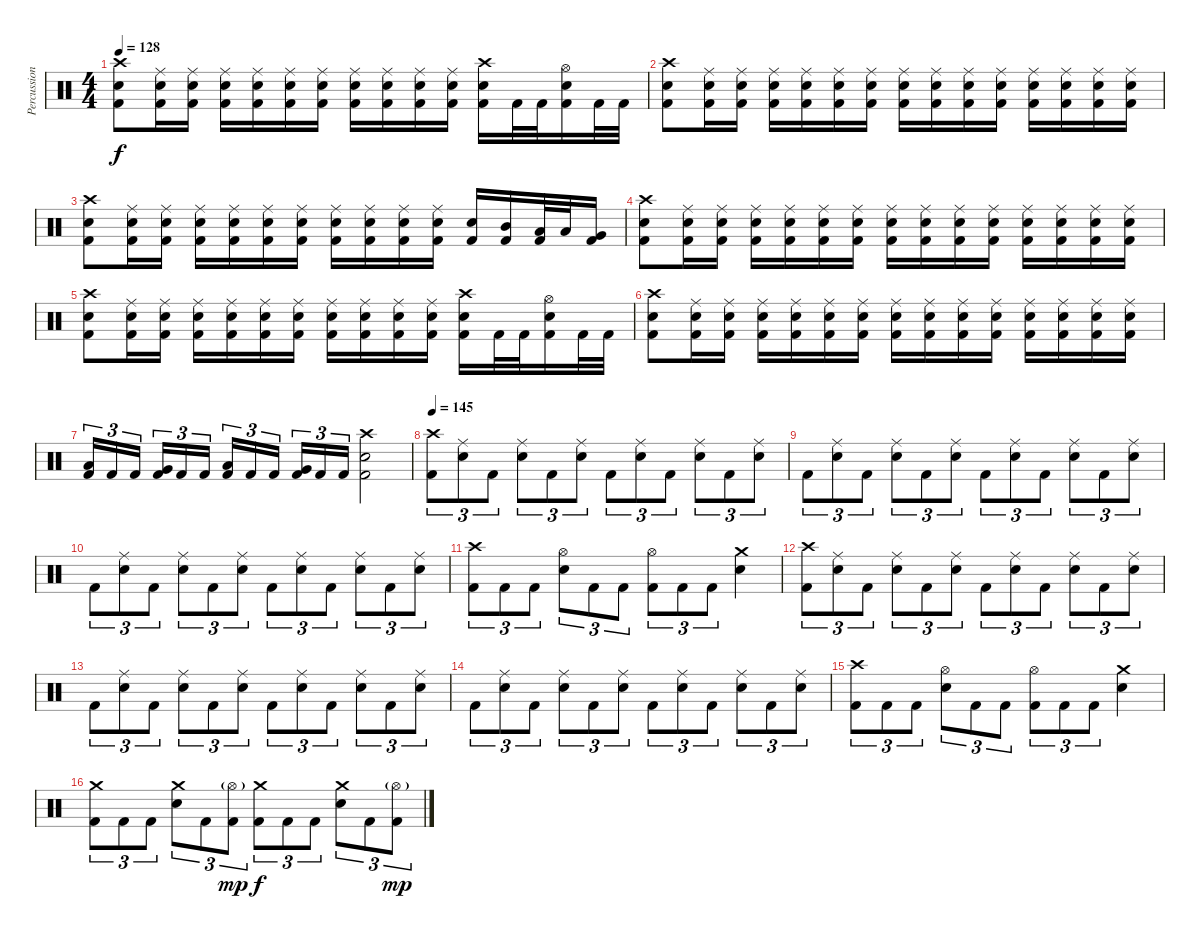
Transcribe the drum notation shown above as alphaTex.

\track ("Percussion" "Percussion") {instrument percussion}
\staff {score}
\articulation defaults
\ts (4 4)
\tempo 128
\clef neutral
\ks c
("Crash high (hit)" "Electric Snare (hit)" "Kick (hit) 2").8{dy f} ("Ride (middle)" "Electric Snare (hit)" "Kick (hit) 2").16 ("Ride (middle)" "Electric Snare (hit)" "Kick (hit) 2").16 ("Ride (middle)" "Electric Snare (hit)" "Kick (hit) 2").16 ("Ride (middle)" "Electric Snare (hit)" "Kick (hit) 2").16 ("Ride (middle)" "Electric Snare (hit)" "Kick (hit) 2").16 ("Ride (middle)" "Electric Snare (hit)" "Kick (hit) 2").16 ("Ride (middle)" "Electric Snare (hit)" "Kick (hit) 2").16 ("Ride (middle)" "Electric Snare (hit)" "Kick (hit) 2").16 ("Ride (middle)" "Electric Snare (hit)" "Kick (hit) 2").16 ("Ride (middle)" "Electric Snare (hit)" "Kick (hit) 2").16 ("Crash high (hit)" "Electric Snare (hit)" "Kick (hit) 2").16 "Kick (hit) 2".32 "Kick (hit) 2".32 ("Hi-Hat (open)" "Electric Snare (hit)" "Kick (hit) 2").16 "Kick (hit) 2".32 "Kick (hit) 2".32 |
("Crash high (hit)" "Electric Snare (hit)" "Kick (hit) 2").8 ("Ride (middle)" "Electric Snare (hit)" "Kick (hit) 2").16 ("Ride (middle)" "Electric Snare (hit)" "Kick (hit) 2").16 ("Ride (middle)" "Electric Snare (hit)" "Kick (hit) 2").16 ("Ride (middle)" "Electric Snare (hit)" "Kick (hit) 2").16 ("Ride (middle)" "Electric Snare (hit)" "Kick (hit) 2").16 ("Ride (middle)" "Electric Snare (hit)" "Kick (hit) 2").16 ("Ride (middle)" "Electric Snare (hit)" "Kick (hit) 2").16 ("Ride (middle)" "Electric Snare (hit)" "Kick (hit) 2").16 ("Ride (middle)" "Electric Snare (hit)" "Kick (hit) 2").16 ("Ride (middle)" "Electric Snare (hit)" "Kick (hit) 2").16 ("Ride (middle)" "Electric Snare (hit)" "Kick (hit) 2").16 ("Ride (middle)" "Electric Snare (hit)" "Kick (hit) 2").16 ("Ride (middle)" "Electric Snare (hit)" "Kick (hit) 2").16 ("Ride (middle)" "Electric Snare (hit)" "Kick (hit) 2").16 |
("Crash high (hit)" "Electric Snare (hit)" "Kick (hit) 2").8 ("Ride (middle)" "Electric Snare (hit)" "Kick (hit) 2").16 ("Ride (middle)" "Electric Snare (hit)" "Kick (hit) 2").16 ("Ride (middle)" "Electric Snare (hit)" "Kick (hit) 2").16 ("Ride (middle)" "Electric Snare (hit)" "Kick (hit) 2").16 ("Ride (middle)" "Electric Snare (hit)" "Kick (hit) 2").16 ("Ride (middle)" "Electric Snare (hit)" "Kick (hit) 2").16 ("Ride (middle)" "Electric Snare (hit)" "Kick (hit) 2").16 ("Ride (middle)" "Electric Snare (hit)" "Kick (hit) 2").16 ("Ride (middle)" "Electric Snare (hit)" "Kick (hit) 2").16 ("Ride (middle)" "Electric Snare (hit)" "Kick (hit) 2").16 ("Electric Snare (hit)" "Kick (hit) 2").16 ("Mid Tom (hit)" "Kick (hit) 2").16 ("Low Tom (hit)" "Kick (hit) 2").32 "Low Tom (hit)".32 ("Very Low Tom (hit)" "Kick (hit) 2").16 |
("Crash high (hit)" "Electric Snare (hit)" "Kick (hit) 2").8 ("Ride (middle)" "Electric Snare (hit)" "Kick (hit) 2").16 ("Ride (middle)" "Electric Snare (hit)" "Kick (hit) 2").16 ("Ride (middle)" "Electric Snare (hit)" "Kick (hit) 2").16 ("Ride (middle)" "Electric Snare (hit)" "Kick (hit) 2").16 ("Ride (middle)" "Electric Snare (hit)" "Kick (hit) 2").16 ("Ride (middle)" "Electric Snare (hit)" "Kick (hit) 2").16 ("Ride (middle)" "Electric Snare (hit)" "Kick (hit) 2").16 ("Ride (middle)" "Electric Snare (hit)" "Kick (hit) 2").16 ("Ride (middle)" "Electric Snare (hit)" "Kick (hit) 2").16 ("Ride (middle)" "Electric Snare (hit)" "Kick (hit) 2").16 ("Ride (middle)" "Electric Snare (hit)" "Kick (hit) 2").16 ("Ride (middle)" "Electric Snare (hit)" "Kick (hit) 2").16 ("Ride (middle)" "Electric Snare (hit)" "Kick (hit) 2").16 ("Ride (middle)" "Electric Snare (hit)" "Kick (hit) 2").16 |
("Crash high (hit)" "Electric Snare (hit)" "Kick (hit) 2").8 ("Ride (middle)" "Electric Snare (hit)" "Kick (hit) 2").16 ("Ride (middle)" "Electric Snare (hit)" "Kick (hit) 2").16 ("Ride (middle)" "Electric Snare (hit)" "Kick (hit) 2").16 ("Ride (middle)" "Electric Snare (hit)" "Kick (hit) 2").16 ("Ride (middle)" "Electric Snare (hit)" "Kick (hit) 2").16 ("Ride (middle)" "Electric Snare (hit)" "Kick (hit) 2").16 ("Ride (middle)" "Electric Snare (hit)" "Kick (hit) 2").16 ("Ride (middle)" "Electric Snare (hit)" "Kick (hit) 2").16 ("Ride (middle)" "Electric Snare (hit)" "Kick (hit) 2").16 ("Ride (middle)" "Electric Snare (hit)" "Kick (hit) 2").16 ("Crash high (hit)" "Electric Snare (hit)" "Kick (hit) 2").16 "Kick (hit) 2".32 "Kick (hit) 2".32 ("Hi-Hat (open)" "Electric Snare (hit)" "Kick (hit) 2").16 "Kick (hit) 2".32 "Kick (hit) 2".32 |
("Crash high (hit)" "Electric Snare (hit)" "Kick (hit) 2").8 ("Ride (middle)" "Electric Snare (hit)" "Kick (hit) 2").16 ("Ride (middle)" "Electric Snare (hit)" "Kick (hit) 2").16 ("Ride (middle)" "Electric Snare (hit)" "Kick (hit) 2").16 ("Ride (middle)" "Electric Snare (hit)" "Kick (hit) 2").16 ("Ride (middle)" "Electric Snare (hit)" "Kick (hit) 2").16 ("Ride (middle)" "Electric Snare (hit)" "Kick (hit) 2").16 ("Ride (middle)" "Electric Snare (hit)" "Kick (hit) 2").16 ("Ride (middle)" "Electric Snare (hit)" "Kick (hit) 2").16 ("Ride (middle)" "Electric Snare (hit)" "Kick (hit) 2").16 ("Ride (middle)" "Electric Snare (hit)" "Kick (hit) 2").16 ("Ride (middle)" "Electric Snare (hit)" "Kick (hit) 2").16 ("Ride (middle)" "Electric Snare (hit)" "Kick (hit) 2").16 ("Ride (middle)" "Electric Snare (hit)" "Kick (hit) 2").16 ("Ride (middle)" "Electric Snare (hit)" "Kick (hit) 2").16 |
("Low Floor Tom (hit)" "Kick (hit) 2").16{tu (3 2)} "Kick (hit) 2".16{tu (3 2)} "Kick (hit) 2".16{tu (3 2)} ("Very Low Tom (hit)" "Kick (hit) 2").16{tu (3 2)} "Kick (hit) 2".16{tu (3 2)} "Kick (hit) 2".16{tu (3 2)} ("Low Tom (hit)" "Kick (hit) 2").16{tu (3 2)} "Kick (hit) 2".16{tu (3 2)} "Kick (hit) 2".16{tu (3 2)} ("Very Low Tom (hit)" "Kick (hit) 2").16{tu (3 2)} "Kick (hit) 2".16{tu (3 2)} "Kick (hit) 2".16{tu (3 2)} ("Crash high (hit)" "Electric Snare (hit)" "Kick (hit) 2").2 |
\tempo 145
("Crash high (hit)" "Kick (hit) 2").8{tu (3 2)} ("Ride (middle)" "Electric Snare (hit)").8{tu (3 2)} "Kick (hit) 2".8{tu (3 2)} ("Ride (middle)" "Electric Snare (hit)").8{tu (3 2)} "Kick (hit) 2".8{tu (3 2)} ("Ride (middle)" "Electric Snare (hit)").8{tu (3 2)} "Kick (hit) 2".8{tu (3 2)} ("Ride (middle)" "Electric Snare (hit)").8{tu (3 2)} "Kick (hit) 2".8{tu (3 2)} ("Ride (middle)" "Electric Snare (hit)").8{tu (3 2)} "Kick (hit) 2".8{tu (3 2)} ("Ride (middle)" "Electric Snare (hit)").8{tu (3 2)} |
"Kick (hit) 2".8{tu (3 2)} ("Ride (middle)" "Electric Snare (hit)").8{tu (3 2)} "Kick (hit) 2".8{tu (3 2)} ("Ride (middle)" "Electric Snare (hit)").8{tu (3 2)} "Kick (hit) 2".8{tu (3 2)} ("Ride (middle)" "Electric Snare (hit)").8{tu (3 2)} "Kick (hit) 2".8{tu (3 2)} ("Ride (middle)" "Electric Snare (hit)").8{tu (3 2)} "Kick (hit) 2".8{tu (3 2)} ("Ride (middle)" "Electric Snare (hit)").8{tu (3 2)} "Kick (hit) 2".8{tu (3 2)} ("Ride (middle)" "Electric Snare (hit)").8{tu (3 2)} |
"Kick (hit) 2".8{tu (3 2)} ("Ride (middle)" "Electric Snare (hit)").8{tu (3 2)} "Kick (hit) 2".8{tu (3 2)} ("Ride (middle)" "Electric Snare (hit)").8{tu (3 2)} "Kick (hit) 2".8{tu (3 2)} ("Ride (middle)" "Electric Snare (hit)").8{tu (3 2)} "Kick (hit) 2".8{tu (3 2)} ("Ride (middle)" "Electric Snare (hit)").8{tu (3 2)} "Kick (hit) 2".8{tu (3 2)} ("Ride (middle)" "Electric Snare (hit)").8{tu (3 2)} "Kick (hit) 2".8{tu (3 2)} ("Ride (middle)" "Electric Snare (hit)").8{tu (3 2)} |
("Crash high (hit)" "Kick (hit) 2").8{tu (3 2)} "Kick (hit) 2".8{tu (3 2)} "Kick (hit) 2".8{tu (3 2)} ("Hi-Hat (open)" "Electric Snare (hit)").8{tu (3 2)} "Kick (hit) 2".8{tu (3 2)} "Kick (hit) 2".8{tu (3 2)} ("Hi-Hat (open)" "Kick (hit) 2").8{tu (3 2)} "Kick (hit) 2".8{tu (3 2)} "Kick (hit) 2".8{tu (3 2)} ("Crash medium (hit)" "Electric Snare (hit)").4 |
("Crash high (hit)" "Kick (hit) 2").8{tu (3 2)} ("Ride (middle)" "Electric Snare (hit)").8{tu (3 2)} "Kick (hit) 2".8{tu (3 2)} ("Ride (middle)" "Electric Snare (hit)").8{tu (3 2)} "Kick (hit) 2".8{tu (3 2)} ("Ride (middle)" "Electric Snare (hit)").8{tu (3 2)} "Kick (hit) 2".8{tu (3 2)} ("Ride (middle)" "Electric Snare (hit)").8{tu (3 2)} "Kick (hit) 2".8{tu (3 2)} ("Ride (middle)" "Electric Snare (hit)").8{tu (3 2)} "Kick (hit) 2".8{tu (3 2)} ("Ride (middle)" "Electric Snare (hit)").8{tu (3 2)} |
"Kick (hit) 2".8{tu (3 2)} ("Ride (middle)" "Electric Snare (hit)").8{tu (3 2)} "Kick (hit) 2".8{tu (3 2)} ("Ride (middle)" "Electric Snare (hit)").8{tu (3 2)} "Kick (hit) 2".8{tu (3 2)} ("Ride (middle)" "Electric Snare (hit)").8{tu (3 2)} "Kick (hit) 2".8{tu (3 2)} ("Ride (middle)" "Electric Snare (hit)").8{tu (3 2)} "Kick (hit) 2".8{tu (3 2)} ("Ride (middle)" "Electric Snare (hit)").8{tu (3 2)} "Kick (hit) 2".8{tu (3 2)} ("Ride (middle)" "Electric Snare (hit)").8{tu (3 2)} |
"Kick (hit) 2".8{tu (3 2)} ("Ride (middle)" "Electric Snare (hit)").8{tu (3 2)} "Kick (hit) 2".8{tu (3 2)} ("Ride (middle)" "Electric Snare (hit)").8{tu (3 2)} "Kick (hit) 2".8{tu (3 2)} ("Ride (middle)" "Electric Snare (hit)").8{tu (3 2)} "Kick (hit) 2".8{tu (3 2)} ("Ride (middle)" "Electric Snare (hit)").8{tu (3 2)} "Kick (hit) 2".8{tu (3 2)} ("Ride (middle)" "Electric Snare (hit)").8{tu (3 2)} "Kick (hit) 2".8{tu (3 2)} ("Ride (middle)" "Electric Snare (hit)").8{tu (3 2)} |
("Crash high (hit)" "Kick (hit) 2").8{tu (3 2)} "Kick (hit) 2".8{tu (3 2)} "Kick (hit) 2".8{tu (3 2)} ("Hi-Hat (open)" "Electric Snare (hit)").8{tu (3 2)} "Kick (hit) 2".8{tu (3 2)} "Kick (hit) 2".8{tu (3 2)} ("Hi-Hat (open)" "Kick (hit) 2").8{tu (3 2)} "Kick (hit) 2".8{tu (3 2)} "Kick (hit) 2".8{tu (3 2)} ("Crash medium (hit)" "Electric Snare (hit)").4 |
("Crash medium (hit)" "Kick (hit) 2").8{tu (3 2)} "Kick (hit) 2".8{tu (3 2)} "Kick (hit) 2".8{tu (3 2)} ("Crash medium (hit)" "Electric Snare (hit)").8{tu (3 2)} "Kick (hit) 2".8{tu (3 2)} ("Hi-Hat (open)"{g} "Kick (hit) 2").8{tu (3 2) dy mp} ("Crash medium (hit)" "Kick (hit) 2").8{tu (3 2) dy f} "Kick (hit) 2".8{tu (3 2)} "Kick (hit) 2".8{tu (3 2)} ("Crash medium (hit)" "Electric Snare (hit)").8{tu (3 2)} "Kick (hit) 2".8{tu (3 2)} ("Hi-Hat (open)"{g} "Kick (hit) 2").8{tu (3 2) dy mp}
